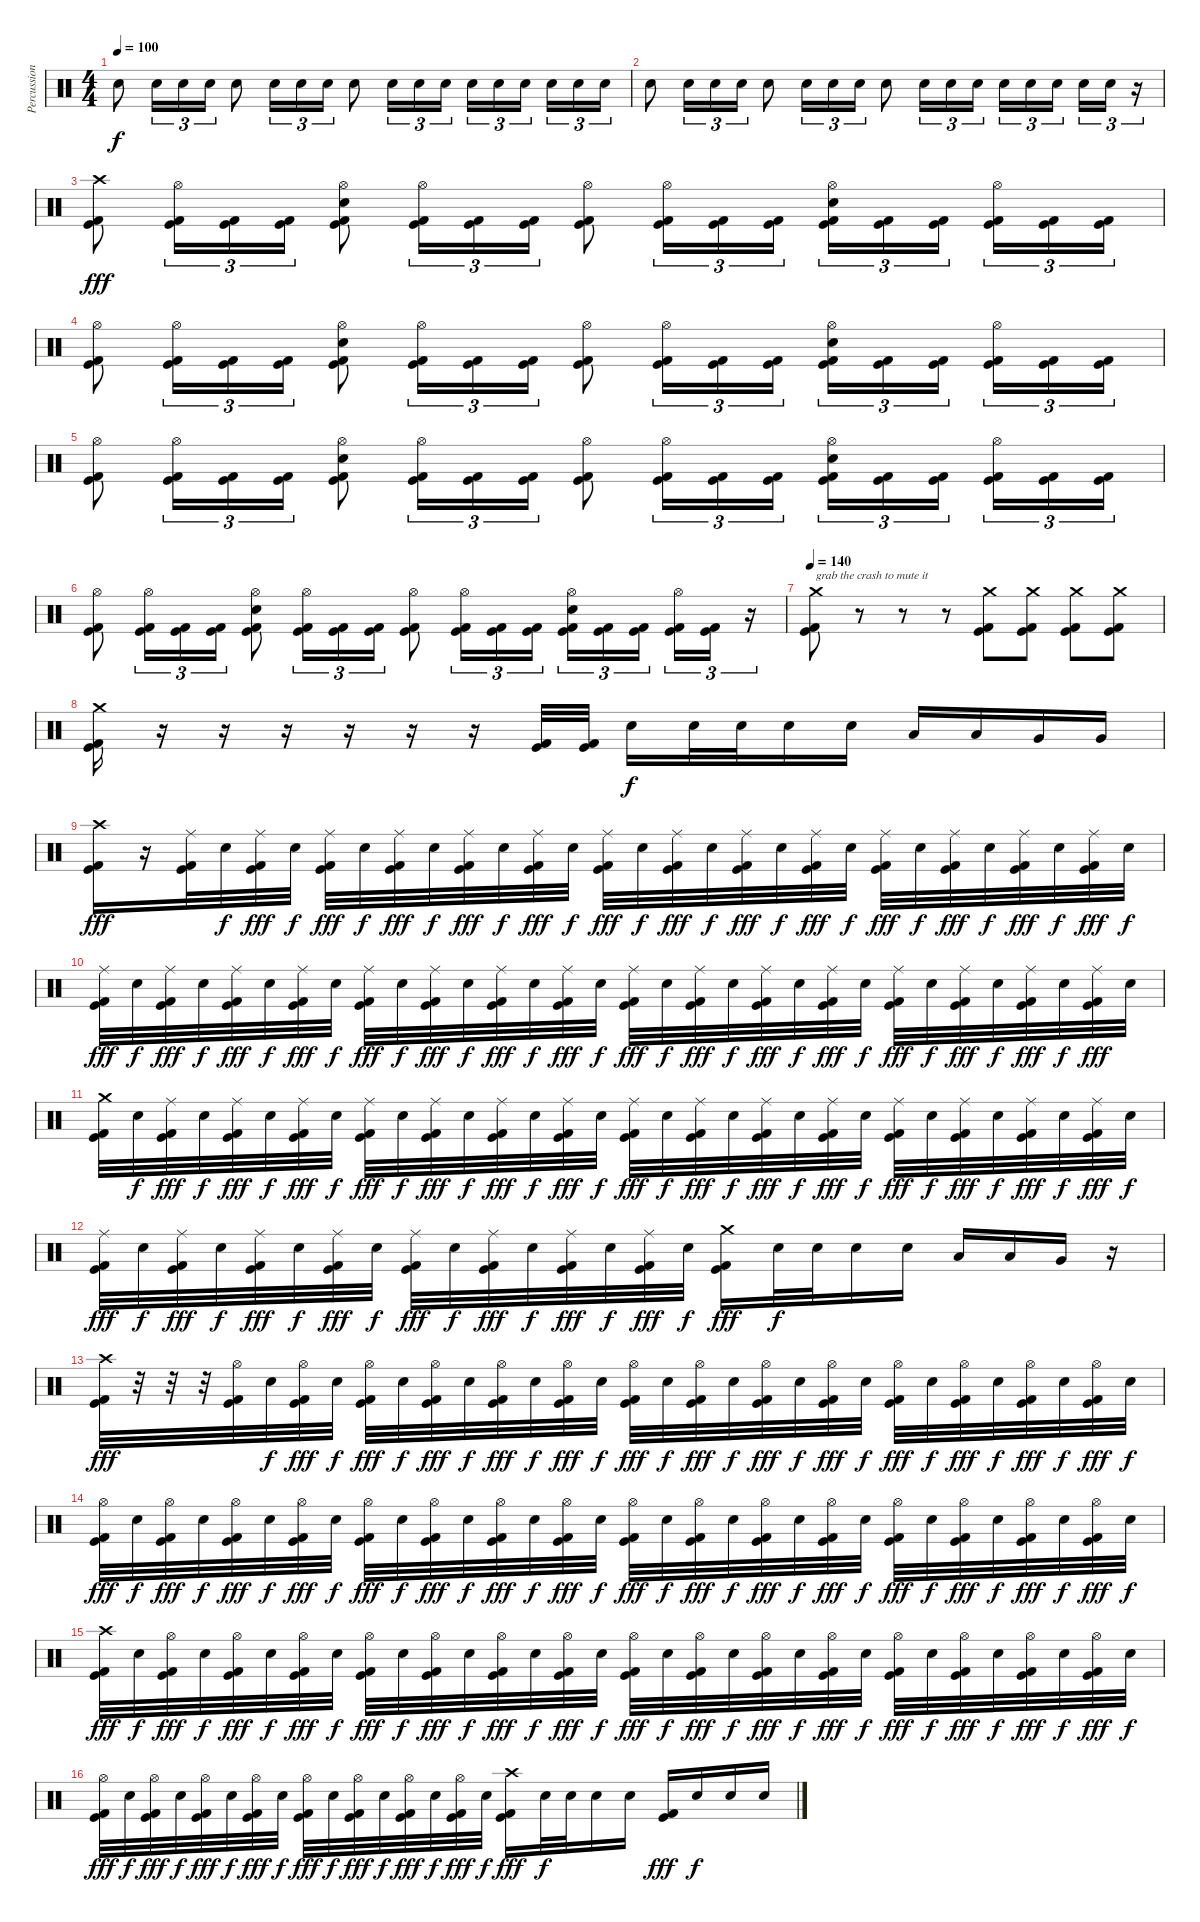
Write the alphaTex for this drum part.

\track ("Percussion" "Percussion") {instrument percussion}
\staff {score}
\articulation defaults
\ts (4 4)
\tempo 100
\clef neutral
\ks c "Electric Snare (hit)".8{dy f} "Electric Snare (hit)".16{tu (3 2)} "Electric Snare (hit)".16{tu (3 2)} "Electric Snare (hit)".16{tu (3 2)} "Electric Snare (hit)".8 "Electric Snare (hit)".16{tu (3 2)} "Electric Snare (hit)".16{tu (3 2)} "Electric Snare (hit)".16{tu (3 2)} "Electric Snare (hit)".8 "Electric Snare (hit)".16{tu (3 2)} "Electric Snare (hit)".16{tu (3 2)} "Electric Snare (hit)".16{tu (3 2)} "Electric Snare (hit)".16{tu (3 2)} "Electric Snare (hit)".16{tu (3 2)} "Electric Snare (hit)".16{tu (3 2)} "Electric Snare (hit)".16{tu (3 2)} "Electric Snare (hit)".16{tu (3 2)} "Electric Snare (hit)".16{tu (3 2)}
|
"Electric Snare (hit)".8 "Electric Snare (hit)".16{tu (3 2)} "Electric Snare (hit)".16{tu (3 2)} "Electric Snare (hit)".16{tu (3 2)} "Electric Snare (hit)".8 "Electric Snare (hit)".16{tu (3 2)} "Electric Snare (hit)".16{tu (3 2)} "Electric Snare (hit)".16{tu (3 2)} "Electric Snare (hit)".8 "Electric Snare (hit)".16{tu (3 2)} "Electric Snare (hit)".16{tu (3 2)} "Electric Snare (hit)".16{tu (3 2)} "Electric Snare (hit)".16{tu (3 2)} "Electric Snare (hit)".16{tu (3 2)} "Electric Snare (hit)".16{tu (3 2)} "Electric Snare (hit)".16{tu (3 2)} "Electric Snare (hit)".16{tu (3 2)} r.16{tu (3 2)} |
("Crash high (hit)" "Kick (hit)" "Kick (hit) 2").8{dy fff} ("Hi-Hat (open)" "Kick (hit)" "Kick (hit) 2").16{tu (3 2)} ("Kick (hit)" "Kick (hit) 2").16{tu (3 2)} ("Kick (hit)" "Kick (hit) 2").16{tu (3 2)} ("Hi-Hat (open)" "Electric Snare (hit)" "Kick (hit)" "Kick (hit) 2").8 ("Hi-Hat (open)" "Kick (hit)" "Kick (hit) 2").16{tu (3 2)} ("Kick (hit)" "Kick (hit) 2").16{tu (3 2)} ("Kick (hit)" "Kick (hit) 2").16{tu (3 2)} ("Hi-Hat (open)" "Kick (hit)" "Kick (hit) 2").8 ("Hi-Hat (open)" "Kick (hit)" "Kick (hit) 2").16{tu (3 2)} ("Kick (hit)" "Kick (hit) 2").16{tu (3 2)} ("Kick (hit)" "Kick (hit) 2").16{tu (3 2)} ("Hi-Hat (open)" "Electric Snare (hit)" "Kick (hit)" "Kick (hit) 2").16{tu (3 2)} ("Kick (hit)" "Kick (hit) 2").16{tu (3 2)} ("Kick (hit)" "Kick (hit) 2").16{tu (3 2)} ("Hi-Hat (open)" "Kick (hit)" "Kick (hit) 2").16{tu (3 2)} ("Kick (hit)" "Kick (hit) 2").16{tu (3 2)} ("Kick (hit)" "Kick (hit) 2").16{tu (3 2)} |
("Hi-Hat (open)" "Kick (hit)" "Kick (hit) 2").8 ("Hi-Hat (open)" "Kick (hit)" "Kick (hit) 2").16{tu (3 2)} ("Kick (hit)" "Kick (hit) 2").16{tu (3 2)} ("Kick (hit)" "Kick (hit) 2").16{tu (3 2)} ("Hi-Hat (open)" "Electric Snare (hit)" "Kick (hit)" "Kick (hit) 2").8 ("Hi-Hat (open)" "Kick (hit)" "Kick (hit) 2").16{tu (3 2)} ("Kick (hit)" "Kick (hit) 2").16{tu (3 2)} ("Kick (hit)" "Kick (hit) 2").16{tu (3 2)} ("Hi-Hat (open)" "Kick (hit)" "Kick (hit) 2").8 ("Hi-Hat (open)" "Kick (hit)" "Kick (hit) 2").16{tu (3 2)} ("Kick (hit)" "Kick (hit) 2").16{tu (3 2)} ("Kick (hit)" "Kick (hit) 2").16{tu (3 2)} ("Hi-Hat (open)" "Electric Snare (hit)" "Kick (hit)" "Kick (hit) 2").16{tu (3 2)} ("Kick (hit)" "Kick (hit) 2").16{tu (3 2)} ("Kick (hit)" "Kick (hit) 2").16{tu (3 2)} ("Hi-Hat (open)" "Kick (hit)" "Kick (hit) 2").16{tu (3 2)} ("Kick (hit)" "Kick (hit) 2").16{tu (3 2)} ("Kick (hit)" "Kick (hit) 2").16{tu (3 2)} |
("Hi-Hat (open)" "Kick (hit)" "Kick (hit) 2").8 ("Hi-Hat (open)" "Kick (hit)" "Kick (hit) 2").16{tu (3 2)} ("Kick (hit)" "Kick (hit) 2").16{tu (3 2)} ("Kick (hit)" "Kick (hit) 2").16{tu (3 2)} ("Hi-Hat (open)" "Electric Snare (hit)" "Kick (hit)" "Kick (hit) 2").8 ("Hi-Hat (open)" "Kick (hit)" "Kick (hit) 2").16{tu (3 2)} ("Kick (hit)" "Kick (hit) 2").16{tu (3 2)} ("Kick (hit)" "Kick (hit) 2").16{tu (3 2)} ("Hi-Hat (open)" "Kick (hit)" "Kick (hit) 2").8 ("Hi-Hat (open)" "Kick (hit)" "Kick (hit) 2").16{tu (3 2)} ("Kick (hit)" "Kick (hit) 2").16{tu (3 2)} ("Kick (hit)" "Kick (hit) 2").16{tu (3 2)} ("Hi-Hat (open)" "Electric Snare (hit)" "Kick (hit)" "Kick (hit) 2").16{tu (3 2)} ("Kick (hit)" "Kick (hit) 2").16{tu (3 2)} ("Kick (hit)" "Kick (hit) 2").16{tu (3 2)} ("Hi-Hat (open)" "Kick (hit)" "Kick (hit) 2").16{tu (3 2)} ("Kick (hit)" "Kick (hit) 2").16{tu (3 2)} ("Kick (hit)" "Kick (hit) 2").16{tu (3 2)} |
("Hi-Hat (open)" "Kick (hit)" "Kick (hit) 2").8 ("Hi-Hat (open)" "Kick (hit)" "Kick (hit) 2").16{tu (3 2)} ("Kick (hit)" "Kick (hit) 2").16{tu (3 2)} ("Kick (hit)" "Kick (hit) 2").16{tu (3 2)} ("Hi-Hat (open)" "Electric Snare (hit)" "Kick (hit)" "Kick (hit) 2").8 ("Hi-Hat (open)" "Kick (hit)" "Kick (hit) 2").16{tu (3 2)} ("Kick (hit)" "Kick (hit) 2").16{tu (3 2)} ("Kick (hit)" "Kick (hit) 2").16{tu (3 2)} ("Hi-Hat (open)" "Kick (hit)" "Kick (hit) 2").8 ("Hi-Hat (open)" "Kick (hit)" "Kick (hit) 2").16{tu (3 2)} ("Kick (hit)" "Kick (hit) 2").16{tu (3 2)} ("Kick (hit)" "Kick (hit) 2").16{tu (3 2)} ("Hi-Hat (open)" "Electric Snare (hit)" "Kick (hit)" "Kick (hit) 2").16{tu (3 2)} ("Kick (hit)" "Kick (hit) 2").16{tu (3 2)} ("Kick (hit)" "Kick (hit) 2").16{tu (3 2)} ("Hi-Hat (open)" "Kick (hit)" "Kick (hit) 2").16{tu (3 2)} ("Kick (hit)" "Kick (hit) 2").16{tu (3 2)} r.16{tu (3 2)} |
\tempo 140
("Crash medium (hit)" "Kick (hit)" "Kick (hit) 2").8{txt "grab the crash to mute it"} r.8 r.8 r.8 ("Crash medium (hit)" "Kick (hit)" "Kick (hit) 2").8 ("Crash medium (hit)" "Kick (hit)" "Kick (hit) 2").8 ("Crash medium (hit)" "Kick (hit)" "Kick (hit) 2").8 ("Crash medium (hit)" "Kick (hit)" "Kick (hit) 2").8 |
("Crash medium (hit)" "Kick (hit)" "Kick (hit) 2").16 r.16 r.16 r.16 r.16 r.16 r.16 ("Kick (hit)" "Kick (hit) 2").32 ("Kick (hit)" "Kick (hit) 2").32 "Electric Snare (hit)".16{dy f} "Electric Snare (hit)".32 "Electric Snare (hit)".32 "Electric Snare (hit)".16 "Electric Snare (hit)".16 "Low Tom (hit)".16 "Low Tom (hit)".16 "Very Low Tom (hit)".16 "Very Low Tom (hit)".16 |
("Crash high (hit)" "Kick (hit)" "Kick (hit) 2").16{dy fff} r.16 ("Ride (middle)" "Kick (hit)" "Kick (hit) 2").32 "Electric Snare (hit)".32{dy f} ("Ride (middle)" "Kick (hit)" "Kick (hit) 2").32{dy fff} "Electric Snare (hit)".32{dy f} ("Ride (middle)" "Kick (hit)" "Kick (hit) 2").32{dy fff} "Electric Snare (hit)".32{dy f} ("Ride (middle)" "Kick (hit)" "Kick (hit) 2").32{dy fff} "Electric Snare (hit)".32{dy f} ("Ride (middle)" "Kick (hit)" "Kick (hit) 2").32{dy fff} "Electric Snare (hit)".32{dy f} ("Ride (middle)" "Kick (hit)" "Kick (hit) 2").32{dy fff} "Electric Snare (hit)".32{dy f} ("Ride (middle)" "Kick (hit)" "Kick (hit) 2").32{dy fff} "Electric Snare (hit)".32{dy f} ("Ride (middle)" "Kick (hit)" "Kick (hit) 2").32{dy fff} "Electric Snare (hit)".32{dy f} ("Ride (middle)" "Kick (hit)" "Kick (hit) 2").32{dy fff} "Electric Snare (hit)".32{dy f} ("Ride (middle)" "Kick (hit)" "Kick (hit) 2").32{dy fff} "Electric Snare (hit)".32{dy f} ("Ride (middle)" "Kick (hit)" "Kick (hit) 2").32{dy fff} "Electric Snare (hit)".32{dy f} ("Ride (middle)" "Kick (hit)" "Kick (hit) 2").32{dy fff} "Electric Snare (hit)".32{dy f} ("Ride (middle)" "Kick (hit)" "Kick (hit) 2").32{dy fff} "Electric Snare (hit)".32{dy f} ("Ride (middle)" "Kick (hit)" "Kick (hit) 2").32{dy fff} "Electric Snare (hit)".32{dy f} |
("Ride (middle)" "Kick (hit)" "Kick (hit) 2").32{dy fff} "Electric Snare (hit)".32{dy f} ("Ride (middle)" "Kick (hit)" "Kick (hit) 2").32{dy fff} "Electric Snare (hit)".32{dy f} ("Ride (middle)" "Kick (hit)" "Kick (hit) 2").32{dy fff} "Electric Snare (hit)".32{dy f} ("Ride (middle)" "Kick (hit)" "Kick (hit) 2").32{dy fff} "Electric Snare (hit)".32{dy f} ("Ride (middle)" "Kick (hit)" "Kick (hit) 2").32{dy fff} "Electric Snare (hit)".32{dy f} ("Ride (middle)" "Kick (hit)" "Kick (hit) 2").32{dy fff} "Electric Snare (hit)".32{dy f} ("Ride (middle)" "Kick (hit)" "Kick (hit) 2").32{dy fff} "Electric Snare (hit)".32{dy f} ("Ride (middle)" "Kick (hit)" "Kick (hit) 2").32{dy fff} "Electric Snare (hit)".32{dy f} ("Ride (middle)" "Kick (hit)" "Kick (hit) 2").32{dy fff} "Electric Snare (hit)".32{dy f} ("Ride (middle)" "Kick (hit)" "Kick (hit) 2").32{dy fff} "Electric Snare (hit)".32{dy f} ("Ride (middle)" "Kick (hit)" "Kick (hit) 2").32{dy fff} "Electric Snare (hit)".32{dy f} ("Ride (middle)" "Kick (hit)" "Kick (hit) 2").32{dy fff} "Electric Snare (hit)".32{dy f} ("Ride (middle)" "Kick (hit)" "Kick (hit) 2").32{dy fff} "Electric Snare (hit)".32{dy f} ("Ride (middle)" "Kick (hit)" "Kick (hit) 2").32{dy fff} "Electric Snare (hit)".32{dy f} ("Ride (middle)" "Kick (hit)" "Kick (hit) 2").32{dy fff} "Electric Snare (hit)".32{dy f} ("Ride (middle)" "Kick (hit)" "Kick (hit) 2").32{dy fff} "Electric Snare (hit)".32 |
("Crash medium (hit)" "Kick (hit)" "Kick (hit) 2").32 "Electric Snare (hit)".32{dy f} ("Ride (middle)" "Kick (hit)" "Kick (hit) 2").32{dy fff} "Electric Snare (hit)".32{dy f} ("Ride (middle)" "Kick (hit)" "Kick (hit) 2").32{dy fff} "Electric Snare (hit)".32{dy f} ("Ride (middle)" "Kick (hit)" "Kick (hit) 2").32{dy fff} "Electric Snare (hit)".32{dy f} ("Ride (middle)" "Kick (hit)" "Kick (hit) 2").32{dy fff} "Electric Snare (hit)".32{dy f} ("Ride (middle)" "Kick (hit)" "Kick (hit) 2").32{dy fff} "Electric Snare (hit)".32{dy f} ("Ride (middle)" "Kick (hit)" "Kick (hit) 2").32{dy fff} "Electric Snare (hit)".32{dy f} ("Ride (middle)" "Kick (hit)" "Kick (hit) 2").32{dy fff} "Electric Snare (hit)".32{dy f} ("Ride (middle)" "Kick (hit)" "Kick (hit) 2").32{dy fff} "Electric Snare (hit)".32{dy f} ("Ride (middle)" "Kick (hit)" "Kick (hit) 2").32{dy fff} "Electric Snare (hit)".32{dy f} ("Ride (middle)" "Kick (hit)" "Kick (hit) 2").32{dy fff} "Electric Snare (hit)".32{dy f} ("Ride (middle)" "Kick (hit)" "Kick (hit) 2").32{dy fff} "Electric Snare (hit)".32{dy f} ("Ride (middle)" "Kick (hit)" "Kick (hit) 2").32{dy fff} "Electric Snare (hit)".32{dy f} ("Ride (middle)" "Kick (hit)" "Kick (hit) 2").32{dy fff} "Electric Snare (hit)".32{dy f} ("Ride (middle)" "Kick (hit)" "Kick (hit) 2").32{dy fff} "Electric Snare (hit)".32{dy f} ("Ride (middle)" "Kick (hit)" "Kick (hit) 2").32{dy fff} "Electric Snare (hit)".32{dy f} |
("Ride (middle)" "Kick (hit)" "Kick (hit) 2").32{dy fff} "Electric Snare (hit)".32{dy f} ("Ride (middle)" "Kick (hit)" "Kick (hit) 2").32{dy fff} "Electric Snare (hit)".32{dy f} ("Ride (middle)" "Kick (hit)" "Kick (hit) 2").32{dy fff} "Electric Snare (hit)".32{dy f} ("Ride (middle)" "Kick (hit)" "Kick (hit) 2").32{dy fff} "Electric Snare (hit)".32{dy f} ("Ride (middle)" "Kick (hit)" "Kick (hit) 2").32{dy fff} "Electric Snare (hit)".32{dy f} ("Ride (middle)" "Kick (hit)" "Kick (hit) 2").32{dy fff} "Electric Snare (hit)".32{dy f} ("Ride (middle)" "Kick (hit)" "Kick (hit) 2").32{dy fff} "Electric Snare (hit)".32{dy f} ("Ride (middle)" "Kick (hit)" "Kick (hit) 2").32{dy fff} "Electric Snare (hit)".32{dy f} ("Crash medium (hit)" "Kick (hit)" "Kick (hit) 2").16{dy fff} "Electric Snare (hit)".32{dy f} "Electric Snare (hit)".32 "Electric Snare (hit)".16 "Electric Snare (hit)".16 "Low Tom (hit)".16 "Low Tom (hit)".16 "Very Low Tom (hit)".16 r.16 |
("Crash high (hit)" "Kick (hit)" "Kick (hit) 2").32{dy fff} r.32 r.32 r.32 ("Hi-Hat (open)" "Kick (hit)" "Kick (hit) 2").32 "Electric Snare (hit)".32{dy f} ("Hi-Hat (open)" "Kick (hit)" "Kick (hit) 2").32{dy fff} "Electric Snare (hit)".32{dy f} ("Hi-Hat (open)" "Kick (hit)" "Kick (hit) 2").32{dy fff} "Electric Snare (hit)".32{dy f} ("Hi-Hat (open)" "Kick (hit)" "Kick (hit) 2").32{dy fff} "Electric Snare (hit)".32{dy f} ("Hi-Hat (open)" "Kick (hit)" "Kick (hit) 2").32{dy fff} "Electric Snare (hit)".32{dy f} ("Hi-Hat (open)" "Kick (hit)" "Kick (hit) 2").32{dy fff} "Electric Snare (hit)".32{dy f} ("Hi-Hat (open)" "Kick (hit)" "Kick (hit) 2").32{dy fff} "Electric Snare (hit)".32{dy f} ("Hi-Hat (open)" "Kick (hit)" "Kick (hit) 2").32{dy fff} "Electric Snare (hit)".32{dy f} ("Hi-Hat (open)" "Kick (hit)" "Kick (hit) 2").32{dy fff} "Electric Snare (hit)".32{dy f} ("Hi-Hat (open)" "Kick (hit)" "Kick (hit) 2").32{dy fff} "Electric Snare (hit)".32{dy f} ("Hi-Hat (open)" "Kick (hit)" "Kick (hit) 2").32{dy fff} "Electric Snare (hit)".32{dy f} ("Hi-Hat (open)" "Kick (hit)" "Kick (hit) 2").32{dy fff} "Electric Snare (hit)".32{dy f} ("Hi-Hat (open)" "Kick (hit)" "Kick (hit) 2").32{dy fff} "Electric Snare (hit)".32{dy f} ("Hi-Hat (open)" "Kick (hit)" "Kick (hit) 2").32{dy fff} "Electric Snare (hit)".32{dy f} |
("Hi-Hat (open)" "Kick (hit)" "Kick (hit) 2").32{dy fff} "Electric Snare (hit)".32{dy f} ("Hi-Hat (open)" "Kick (hit)" "Kick (hit) 2").32{dy fff} "Electric Snare (hit)".32{dy f} ("Hi-Hat (open)" "Kick (hit)" "Kick (hit) 2").32{dy fff} "Electric Snare (hit)".32{dy f} ("Hi-Hat (open)" "Kick (hit)" "Kick (hit) 2").32{dy fff} "Electric Snare (hit)".32{dy f} ("Hi-Hat (open)" "Kick (hit)" "Kick (hit) 2").32{dy fff} "Electric Snare (hit)".32{dy f} ("Hi-Hat (open)" "Kick (hit)" "Kick (hit) 2").32{dy fff} "Electric Snare (hit)".32{dy f} ("Hi-Hat (open)" "Kick (hit)" "Kick (hit) 2").32{dy fff} "Electric Snare (hit)".32{dy f} ("Hi-Hat (open)" "Kick (hit)" "Kick (hit) 2").32{dy fff} "Electric Snare (hit)".32{dy f} ("Hi-Hat (open)" "Kick (hit)" "Kick (hit) 2").32{dy fff} "Electric Snare (hit)".32{dy f} ("Hi-Hat (open)" "Kick (hit)" "Kick (hit) 2").32{dy fff} "Electric Snare (hit)".32{dy f} ("Hi-Hat (open)" "Kick (hit)" "Kick (hit) 2").32{dy fff} "Electric Snare (hit)".32{dy f} ("Hi-Hat (open)" "Kick (hit)" "Kick (hit) 2").32{dy fff} "Electric Snare (hit)".32{dy f} ("Hi-Hat (open)" "Kick (hit)" "Kick (hit) 2").32{dy fff} "Electric Snare (hit)".32{dy f} ("Hi-Hat (open)" "Kick (hit)" "Kick (hit) 2").32{dy fff} "Electric Snare (hit)".32{dy f} ("Hi-Hat (open)" "Kick (hit)" "Kick (hit) 2").32{dy fff} "Electric Snare (hit)".32{dy f} ("Hi-Hat (open)" "Kick (hit)" "Kick (hit) 2").32{dy fff} "Electric Snare (hit)".32{dy f} |
("Crash high (hit)" "Kick (hit)" "Kick (hit) 2").32{dy fff} "Electric Snare (hit)".32{dy f} ("Hi-Hat (open)" "Kick (hit)" "Kick (hit) 2").32{dy fff} "Electric Snare (hit)".32{dy f} ("Hi-Hat (open)" "Kick (hit)" "Kick (hit) 2").32{dy fff} "Electric Snare (hit)".32{dy f} ("Hi-Hat (open)" "Kick (hit)" "Kick (hit) 2").32{dy fff} "Electric Snare (hit)".32{dy f} ("Hi-Hat (open)" "Kick (hit)" "Kick (hit) 2").32{dy fff} "Electric Snare (hit)".32{dy f} ("Hi-Hat (open)" "Kick (hit)" "Kick (hit) 2").32{dy fff} "Electric Snare (hit)".32{dy f} ("Hi-Hat (open)" "Kick (hit)" "Kick (hit) 2").32{dy fff} "Electric Snare (hit)".32{dy f} ("Hi-Hat (open)" "Kick (hit)" "Kick (hit) 2").32{dy fff} "Electric Snare (hit)".32{dy f} ("Hi-Hat (open)" "Kick (hit)" "Kick (hit) 2").32{dy fff} "Electric Snare (hit)".32{dy f} ("Hi-Hat (open)" "Kick (hit)" "Kick (hit) 2").32{dy fff} "Electric Snare (hit)".32{dy f} ("Hi-Hat (open)" "Kick (hit)" "Kick (hit) 2").32{dy fff} "Electric Snare (hit)".32{dy f} ("Hi-Hat (open)" "Kick (hit)" "Kick (hit) 2").32{dy fff} "Electric Snare (hit)".32{dy f} ("Hi-Hat (open)" "Kick (hit)" "Kick (hit) 2").32{dy fff} "Electric Snare (hit)".32{dy f} ("Hi-Hat (open)" "Kick (hit)" "Kick (hit) 2").32{dy fff} "Electric Snare (hit)".32{dy f} ("Hi-Hat (open)" "Kick (hit)" "Kick (hit) 2").32{dy fff} "Electric Snare (hit)".32{dy f} ("Hi-Hat (open)" "Kick (hit)" "Kick (hit) 2").32{dy fff} "Electric Snare (hit)".32{dy f} |
("Hi-Hat (open)" "Kick (hit)" "Kick (hit) 2").32{dy fff} "Electric Snare (hit)".32{dy f} ("Hi-Hat (open)" "Kick (hit)" "Kick (hit) 2").32{dy fff} "Electric Snare (hit)".32{dy f} ("Hi-Hat (open)" "Kick (hit)" "Kick (hit) 2").32{dy fff} "Electric Snare (hit)".32{dy f} ("Hi-Hat (open)" "Kick (hit)" "Kick (hit) 2").32{dy fff} "Electric Snare (hit)".32{dy f} ("Hi-Hat (open)" "Kick (hit)" "Kick (hit) 2").32{dy fff} "Electric Snare (hit)".32{dy f} ("Hi-Hat (open)" "Kick (hit)" "Kick (hit) 2").32{dy fff} "Electric Snare (hit)".32{dy f} ("Hi-Hat (open)" "Kick (hit)" "Kick (hit) 2").32{dy fff} "Electric Snare (hit)".32{dy f} ("Hi-Hat (open)" "Kick (hit)" "Kick (hit) 2").32{dy fff} "Electric Snare (hit)".32{dy f} ("Crash high (hit)" "Kick (hit)" "Kick (hit) 2").16{dy fff} "Electric Snare (hit)".32{dy f} "Electric Snare (hit)".32 "Electric Snare (hit)".16 "Electric Snare (hit)".16 ("Kick (hit)" "Kick (hit) 2").16{dy fff} "Electric Snare (hit)".16{dy f} "Electric Snare (hit)".16 "Electric Snare (hit)".16
